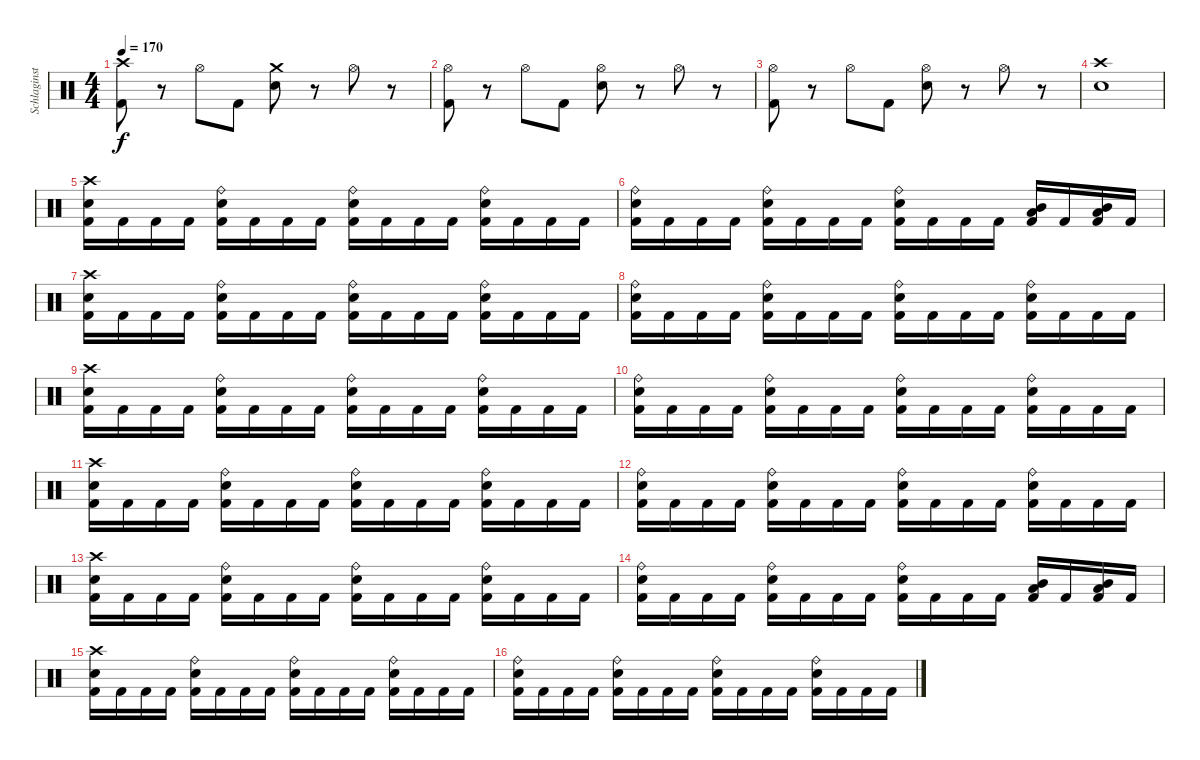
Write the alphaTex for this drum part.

\track ("Schlaginstrumente - Auswahl" "Schlaginst") {instrument percussion}
\staff {score}
\articulation defaults
\ts (4 4)
\tempo 170
\clef neutral
\ks c
("Crash high (hit)" "Kick (hit) 2").8{dy f} r.8 "Hi-Hat (open)".8 "Kick (hit) 2".8 ("Crash medium (hit)" "Snare (hit) 2").8 r.8 "Hi-Hat (open)".8 r.8 |
("Hi-Hat (open)" "Kick (hit) 2").8 r.8 "Hi-Hat (open)".8 "Kick (hit) 2".8 ("Hi-Hat (open)" "Snare (hit) 2").8 r.8 "Hi-Hat (open)".8 r.8 |
("Hi-Hat (open)" "Kick (hit) 2").8 r.8 "Hi-Hat (open)".8 "Kick (hit) 2".8 ("Hi-Hat (open)" "Snare (hit) 2").8 r.8 "Hi-Hat (open)".8 r.8 |
("Crash high (hit)" "Snare (hit) 2").1 |
("Crash high (hit)" "Snare (hit) 2" "Kick (hit) 2").16 "Kick (hit) 2".16 "Kick (hit) 2".16 "Kick (hit) 2".16 ("Ride (bell)" "Snare (hit) 2" "Kick (hit) 2").16 "Kick (hit) 2".16 "Kick (hit) 2".16 "Kick (hit) 2".16 ("Ride (bell)" "Snare (hit) 2" "Kick (hit) 2").16 "Kick (hit) 2".16 "Kick (hit) 2".16 "Kick (hit) 2".16 ("Ride (bell)" "Snare (hit) 2" "Kick (hit) 2").16 "Kick (hit) 2".16 "Kick (hit) 2".16 "Kick (hit) 2".16 |
("Ride (bell)" "Snare (hit) 2" "Kick (hit) 2").16 "Kick (hit) 2".16 "Kick (hit) 2".16 "Kick (hit) 2".16 ("Ride (bell)" "Snare (hit) 2" "Kick (hit) 2").16 "Kick (hit) 2".16 "Kick (hit) 2".16 "Kick (hit) 2".16 ("Ride (bell)" "Snare (hit) 2" "Kick (hit) 2").16 "Kick (hit) 2".16 "Kick (hit) 2".16 "Kick (hit) 2".16 ("Low Tom (hit)" "Mid Tom (hit)" "Kick (hit) 2").16 "Kick (hit) 2".16 ("Low Tom (hit)" "Mid Tom (hit)" "Kick (hit) 2").16 "Kick (hit) 2".16 |
("Crash high (hit)" "Snare (hit) 2" "Kick (hit) 2").16 "Kick (hit) 2".16 "Kick (hit) 2".16 "Kick (hit) 2".16 ("Ride (bell)" "Snare (hit) 2" "Kick (hit) 2").16 "Kick (hit) 2".16 "Kick (hit) 2".16 "Kick (hit) 2".16 ("Ride (bell)" "Snare (hit) 2" "Kick (hit) 2").16 "Kick (hit) 2".16 "Kick (hit) 2".16 "Kick (hit) 2".16 ("Ride (bell)" "Snare (hit) 2" "Kick (hit) 2").16 "Kick (hit) 2".16 "Kick (hit) 2".16 "Kick (hit) 2".16 |
("Ride (bell)" "Snare (hit) 2" "Kick (hit) 2").16 "Kick (hit) 2".16 "Kick (hit) 2".16 "Kick (hit) 2".16 ("Ride (bell)" "Snare (hit) 2" "Kick (hit) 2").16 "Kick (hit) 2".16 "Kick (hit) 2".16 "Kick (hit) 2".16 ("Ride (bell)" "Snare (hit) 2" "Kick (hit) 2").16 "Kick (hit) 2".16 "Kick (hit) 2".16 "Kick (hit) 2".16 ("Ride (bell)" "Snare (hit) 2" "Kick (hit) 2").16 "Kick (hit) 2".16 "Kick (hit) 2".16 "Kick (hit) 2".16 |
("Crash high (hit)" "Snare (hit) 2" "Kick (hit) 2").16 "Kick (hit) 2".16 "Kick (hit) 2".16 "Kick (hit) 2".16 ("Ride (bell)" "Snare (hit) 2" "Kick (hit) 2").16 "Kick (hit) 2".16 "Kick (hit) 2".16 "Kick (hit) 2".16 ("Ride (bell)" "Snare (hit) 2" "Kick (hit) 2").16 "Kick (hit) 2".16 "Kick (hit) 2".16 "Kick (hit) 2".16 ("Ride (bell)" "Snare (hit) 2" "Kick (hit) 2").16 "Kick (hit) 2".16 "Kick (hit) 2".16 "Kick (hit) 2".16 |
("Ride (bell)" "Snare (hit) 2" "Kick (hit) 2").16 "Kick (hit) 2".16 "Kick (hit) 2".16 "Kick (hit) 2".16 ("Ride (bell)" "Snare (hit) 2" "Kick (hit) 2").16 "Kick (hit) 2".16 "Kick (hit) 2".16 "Kick (hit) 2".16 ("Ride (bell)" "Snare (hit) 2" "Kick (hit) 2").16 "Kick (hit) 2".16 "Kick (hit) 2".16 "Kick (hit) 2".16 ("Ride (bell)" "Snare (hit) 2" "Kick (hit) 2").16 "Kick (hit) 2".16 "Kick (hit) 2".16 "Kick (hit) 2".16 |
("Crash high (hit)" "Snare (hit) 2" "Kick (hit) 2").16 "Kick (hit) 2".16 "Kick (hit) 2".16 "Kick (hit) 2".16 ("Ride (bell)" "Snare (hit) 2" "Kick (hit) 2").16 "Kick (hit) 2".16 "Kick (hit) 2".16 "Kick (hit) 2".16 ("Ride (bell)" "Snare (hit) 2" "Kick (hit) 2").16 "Kick (hit) 2".16 "Kick (hit) 2".16 "Kick (hit) 2".16 ("Ride (bell)" "Snare (hit) 2" "Kick (hit) 2").16 "Kick (hit) 2".16 "Kick (hit) 2".16 "Kick (hit) 2".16 |
("Ride (bell)" "Snare (hit) 2" "Kick (hit) 2").16 "Kick (hit) 2".16 "Kick (hit) 2".16 "Kick (hit) 2".16 ("Ride (bell)" "Snare (hit) 2" "Kick (hit) 2").16 "Kick (hit) 2".16 "Kick (hit) 2".16 "Kick (hit) 2".16 ("Ride (bell)" "Snare (hit) 2" "Kick (hit) 2").16 "Kick (hit) 2".16 "Kick (hit) 2".16 "Kick (hit) 2".16 ("Ride (bell)" "Snare (hit) 2" "Kick (hit) 2").16 "Kick (hit) 2".16 "Kick (hit) 2".16 "Kick (hit) 2".16 |
("Crash high (hit)" "Snare (hit) 2" "Kick (hit) 2").16 "Kick (hit) 2".16 "Kick (hit) 2".16 "Kick (hit) 2".16 ("Ride (bell)" "Snare (hit) 2" "Kick (hit) 2").16 "Kick (hit) 2".16 "Kick (hit) 2".16 "Kick (hit) 2".16 ("Ride (bell)" "Snare (hit) 2" "Kick (hit) 2").16 "Kick (hit) 2".16 "Kick (hit) 2".16 "Kick (hit) 2".16 ("Ride (bell)" "Snare (hit) 2" "Kick (hit) 2").16 "Kick (hit) 2".16 "Kick (hit) 2".16 "Kick (hit) 2".16 |
("Ride (bell)" "Snare (hit) 2" "Kick (hit) 2").16 "Kick (hit) 2".16 "Kick (hit) 2".16 "Kick (hit) 2".16 ("Ride (bell)" "Snare (hit) 2" "Kick (hit) 2").16 "Kick (hit) 2".16 "Kick (hit) 2".16 "Kick (hit) 2".16 ("Ride (bell)" "Snare (hit) 2" "Kick (hit) 2").16 "Kick (hit) 2".16 "Kick (hit) 2".16 "Kick (hit) 2".16 ("Low Tom (hit)" "Mid Tom (hit)" "Kick (hit) 2").16 "Kick (hit) 2".16 ("Low Tom (hit)" "Mid Tom (hit)" "Kick (hit) 2").16 "Kick (hit) 2".16 |
("Crash high (hit)" "Snare (hit) 2" "Kick (hit) 2").16 "Kick (hit) 2".16 "Kick (hit) 2".16 "Kick (hit) 2".16 ("Ride (bell)" "Snare (hit) 2" "Kick (hit) 2").16 "Kick (hit) 2".16 "Kick (hit) 2".16 "Kick (hit) 2".16 ("Ride (bell)" "Snare (hit) 2" "Kick (hit) 2").16 "Kick (hit) 2".16 "Kick (hit) 2".16 "Kick (hit) 2".16 ("Ride (bell)" "Snare (hit) 2" "Kick (hit) 2").16 "Kick (hit) 2".16 "Kick (hit) 2".16 "Kick (hit) 2".16 |
("Ride (bell)" "Snare (hit) 2" "Kick (hit) 2").16 "Kick (hit) 2".16 "Kick (hit) 2".16 "Kick (hit) 2".16 ("Ride (bell)" "Snare (hit) 2" "Kick (hit) 2").16 "Kick (hit) 2".16 "Kick (hit) 2".16 "Kick (hit) 2".16 ("Ride (bell)" "Snare (hit) 2" "Kick (hit) 2").16 "Kick (hit) 2".16 "Kick (hit) 2".16 "Kick (hit) 2".16 ("Ride (bell)" "Snare (hit) 2" "Kick (hit) 2").16 "Kick (hit) 2".16 "Kick (hit) 2".16 "Kick (hit) 2".16
